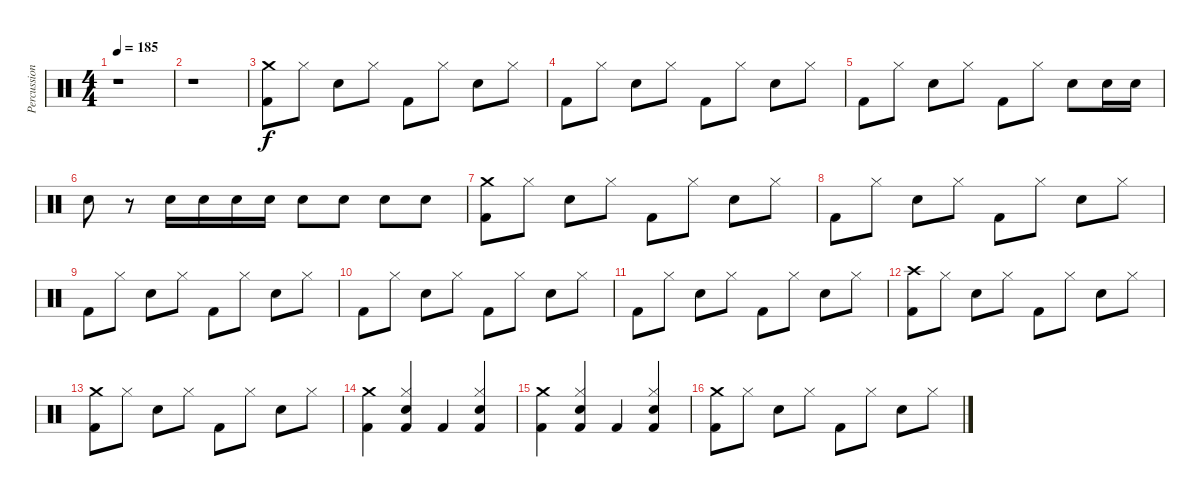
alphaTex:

\track ("Percussions" "Percussion") {instrument percussion}
\staff {score}
\articulation defaults
\ts (4 4)
\tempo 185
\clef neutral
\ks c
r.1{dy f} |
r.1 |
("Crash medium (hit)" "Kick (hit) 2").8 "Hi-Hat (closed)".8 "Snare (hit) 2".8 "Hi-Hat (closed)".8 "Kick (hit) 2".8 "Hi-Hat (closed)".8 "Snare (hit) 2".8 "Hi-Hat (closed)".8 |
"Kick (hit) 2".8 "Hi-Hat (closed)".8 "Snare (hit) 2".8 "Hi-Hat (closed)".8 "Kick (hit) 2".8 "Hi-Hat (closed)".8 "Snare (hit) 2".8 "Hi-Hat (closed)".8 |
"Kick (hit) 2".8 "Hi-Hat (closed)".8 "Snare (hit) 2".8 "Hi-Hat (closed)".8 "Kick (hit) 2".8 "Hi-Hat (closed)".8 "Snare (hit) 2".8 "Snare (hit) 2".16 "Snare (hit) 2".16 |
"Snare (hit) 2".8 r.8 "Snare (hit) 2".16 "Snare (hit) 2".16 "Snare (hit) 2".16 "Snare (hit) 2".16 "Snare (hit) 2".8 "Snare (hit) 2".8 "Snare (hit) 2".8 "Snare (hit) 2".8 |
("Crash medium (hit)" "Kick (hit) 2").8 "Hi-Hat (closed)".8 "Snare (hit) 2".8 "Hi-Hat (closed)".8 "Kick (hit) 2".8 "Hi-Hat (closed)".8 "Snare (hit) 2".8 "Hi-Hat (closed)".8 |
"Kick (hit) 2".8 "Hi-Hat (closed)".8 "Snare (hit) 2".8 "Hi-Hat (closed)".8 "Kick (hit) 2".8 "Hi-Hat (closed)".8 "Snare (hit) 2".8 "Hi-Hat (closed)".8 |
"Kick (hit) 2".8 "Hi-Hat (closed)".8 "Snare (hit) 2".8 "Hi-Hat (closed)".8 "Kick (hit) 2".8 "Hi-Hat (closed)".8 "Snare (hit) 2".8 "Hi-Hat (closed)".8 |
"Kick (hit) 2".8 "Hi-Hat (closed)".8 "Snare (hit) 2".8 "Hi-Hat (closed)".8 "Kick (hit) 2".8 "Hi-Hat (closed)".8 "Snare (hit) 2".8 "Hi-Hat (closed)".8 |
"Kick (hit) 2".8 "Hi-Hat (closed)".8 "Snare (hit) 2".8 "Hi-Hat (closed)".8 "Kick (hit) 2".8 "Hi-Hat (closed)".8 "Snare (hit) 2".8 "Hi-Hat (closed)".8 |
("Crash high (hit)" "Kick (hit) 2").8 "Hi-Hat (closed)".8 "Snare (hit) 2".8 "Hi-Hat (closed)".8 "Kick (hit) 2".8 "Hi-Hat (closed)".8 "Snare (hit) 2".8 "Hi-Hat (closed)".8 |
("Crash medium (hit)" "Kick (hit) 2").8 "Hi-Hat (closed)".8 "Snare (hit) 2".8 "Hi-Hat (closed)".8 "Kick (hit) 2".8 "Hi-Hat (closed)".8 "Snare (hit) 2".8 "Hi-Hat (closed)".8 |
("Crash medium (hit)" "Kick (hit) 2").4 ("Hi-Hat (closed)" "Snare (hit) 2" "Kick (hit) 2").4 "Kick (hit) 2".4 ("Hi-Hat (closed)" "Snare (hit) 2" "Kick (hit) 2").4 |
("Crash medium (hit)" "Kick (hit) 2").4 ("Hi-Hat (closed)" "Snare (hit) 2" "Kick (hit) 2").4 "Kick (hit) 2".4 ("Hi-Hat (closed)" "Snare (hit) 2" "Kick (hit) 2").4 |
("Crash medium (hit)" "Kick (hit) 2").8 "Hi-Hat (closed)".8 "Snare (hit) 2".8 "Hi-Hat (closed)".8 "Kick (hit) 2".8 "Hi-Hat (closed)".8 "Snare (hit) 2".8 "Hi-Hat (closed)".8
